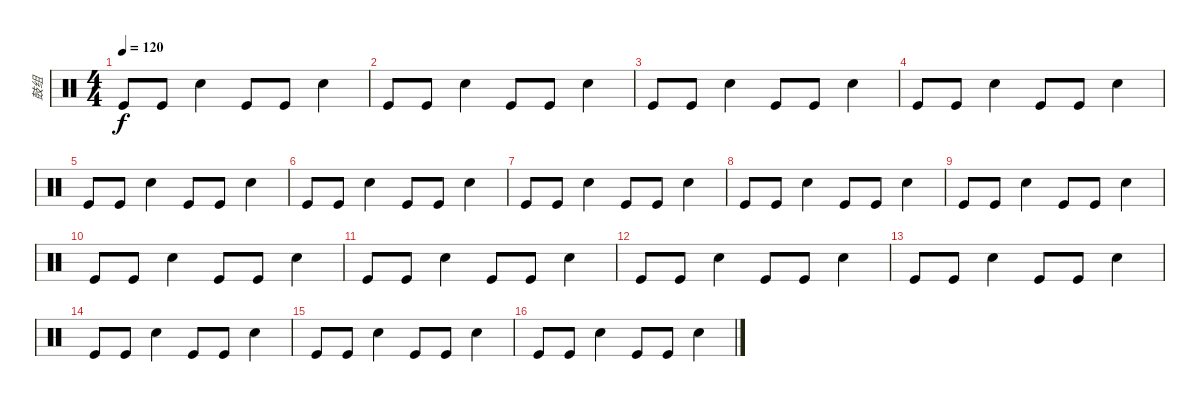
\track ("鼓组" "鼓组") {instrument percussion}
\staff {score}
\articulation defaults
\ts (4 4)
\tempo 120
\clef neutral
\ks c "Kick (hit)".8{dy f} "Kick (hit)".8 "Snare (hit) 2".4 "Kick (hit)".8 "Kick (hit)".8 "Snare (hit) 2".4
|
"Kick (hit)".8 "Kick (hit)".8 "Snare (hit) 2".4 "Kick (hit)".8 "Kick (hit)".8 "Snare (hit) 2".4 |
"Kick (hit)".8 "Kick (hit)".8 "Snare (hit) 2".4 "Kick (hit)".8 "Kick (hit)".8 "Snare (hit) 2".4 |
"Kick (hit)".8 "Kick (hit)".8 "Snare (hit) 2".4 "Kick (hit)".8 "Kick (hit)".8 "Snare (hit) 2".4 |
"Kick (hit)".8 "Kick (hit)".8 "Snare (hit) 2".4 "Kick (hit)".8 "Kick (hit)".8 "Snare (hit) 2".4 |
"Kick (hit)".8 "Kick (hit)".8 "Snare (hit) 2".4 "Kick (hit)".8 "Kick (hit)".8 "Snare (hit) 2".4 |
"Kick (hit)".8 "Kick (hit)".8 "Snare (hit) 2".4 "Kick (hit)".8 "Kick (hit)".8 "Snare (hit) 2".4 |
"Kick (hit)".8 "Kick (hit)".8 "Snare (hit) 2".4 "Kick (hit)".8 "Kick (hit)".8 "Snare (hit) 2".4 |
"Kick (hit)".8 "Kick (hit)".8 "Snare (hit) 2".4 "Kick (hit)".8 "Kick (hit)".8 "Snare (hit) 2".4 |
"Kick (hit)".8 "Kick (hit)".8 "Snare (hit) 2".4 "Kick (hit)".8 "Kick (hit)".8 "Snare (hit) 2".4 |
"Kick (hit)".8 "Kick (hit)".8 "Snare (hit) 2".4 "Kick (hit)".8 "Kick (hit)".8 "Snare (hit) 2".4 |
"Kick (hit)".8 "Kick (hit)".8 "Snare (hit) 2".4 "Kick (hit)".8 "Kick (hit)".8 "Snare (hit) 2".4 |
"Kick (hit)".8 "Kick (hit)".8 "Snare (hit) 2".4 "Kick (hit)".8 "Kick (hit)".8 "Snare (hit) 2".4 |
"Kick (hit)".8 "Kick (hit)".8 "Snare (hit) 2".4 "Kick (hit)".8 "Kick (hit)".8 "Snare (hit) 2".4 |
"Kick (hit)".8 "Kick (hit)".8 "Snare (hit) 2".4 "Kick (hit)".8 "Kick (hit)".8 "Snare (hit) 2".4 |
"Kick (hit)".8 "Kick (hit)".8 "Snare (hit) 2".4 "Kick (hit)".8 "Kick (hit)".8 "Snare (hit) 2".4
